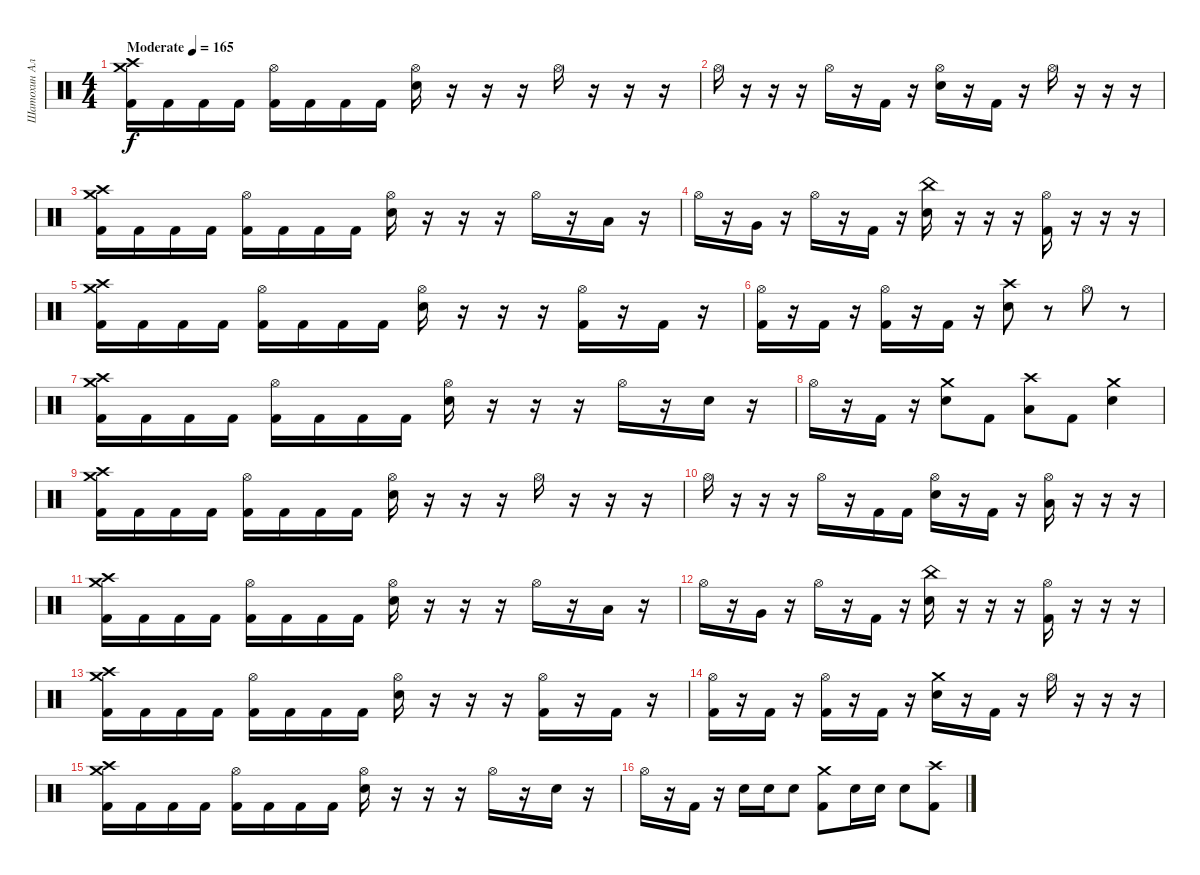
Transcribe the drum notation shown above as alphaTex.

\track ("Шатохин Алексей" "Шатохин Ал") {instrument percussion}
\staff {score}
\articulation defaults
\ts (4 4)
\tempo (165 "Moderate")
\clef neutral
\ks c
("Crash medium (hit)" "Crash high (hit)" "Kick (hit) 2").16{dy f} "Kick (hit) 2".16 "Kick (hit) 2".16 "Kick (hit) 2".16 ("Hi-Hat (open)" "Kick (hit) 2").16 "Kick (hit) 2".16 "Kick (hit) 2".16 "Kick (hit) 2".16 ("Hi-Hat (open)" "Electric Snare (hit)").16 r.16 r.16 r.16 "Hi-Hat (open)".16 r.16 r.16 r.16 |
"Hi-Hat (open)".16 r.16 r.16 r.16 "Hi-Hat (open)".16 r.16 "Kick (hit) 2".16 r.16 ("Hi-Hat (open)" "Electric Snare (hit)").16 r.16 "Kick (hit) 2".16 r.16 "Hi-Hat (open)".16 r.16 r.16 r.16 |
("Crash high (hit)" "Crash medium (hit)" "Kick (hit) 2").16 "Kick (hit) 2".16 "Kick (hit) 2".16 "Kick (hit) 2".16 ("Hi-Hat (open)" "Kick (hit) 2").16 "Kick (hit) 2".16 "Kick (hit) 2".16 "Kick (hit) 2".16 ("Hi-Hat (open)" "Electric Snare (hit)").16 r.16 r.16 r.16 "Hi-Hat (open)".16 r.16 "Low Tom (hit)".16 r.16 |
"Hi-Hat (open)".16 r.16 "Very Low Tom (hit)".16 r.16 "Hi-Hat (open)".16 r.16 "Kick (hit) 2".16 r.16 ("China (hit)" "Electric Snare (hit)").16 r.16 r.16 r.16 ("Hi-Hat (open)" "Kick (hit) 2").16 r.16 r.16 r.16 |
("Crash medium (hit)" "Crash high (hit)" "Kick (hit) 2").16 "Kick (hit) 2".16 "Kick (hit) 2".16 "Kick (hit) 2".16 ("Hi-Hat (open)" "Kick (hit) 2").16 "Kick (hit) 2".16 "Kick (hit) 2".16 "Kick (hit) 2".16 ("Hi-Hat (open)" "Electric Snare (hit)").16 r.16 r.16 r.16 ("Hi-Hat (open)" "Kick (hit) 2").16 r.16 "Kick (hit) 2".16 r.16 |
("Hi-Hat (open)" "Kick (hit) 2").16 r.16 "Kick (hit) 2".16 r.16 ("Hi-Hat (open)" "Kick (hit) 2").16 r.16 "Kick (hit) 2".16 r.16 ("Crash high (hit)" "Electric Snare (hit)").8 r.8 "Hi-Hat (open)".8 r.8 |
("Crash medium (hit)" "Crash high (hit)" "Kick (hit) 2").16 "Kick (hit) 2".16 "Kick (hit) 2".16 "Kick (hit) 2".16 ("Hi-Hat (open)" "Kick (hit) 2").16 "Kick (hit) 2".16 "Kick (hit) 2".16 "Kick (hit) 2".16 ("Hi-Hat (open)" "Electric Snare (hit)").16 r.16 r.16 r.16 "Hi-Hat (open)".16 r.16 "Electric Snare (hit)".16 r.16 |
"Hi-Hat (open)".16 r.16 "Kick (hit) 2".16 r.16 ("Crash medium (hit)" "Electric Snare (hit)").8 "Kick (hit) 2".8 ("Crash high (hit)" "Low Tom (hit)").8 "Kick (hit) 2".8 ("Crash medium (hit)" "Electric Snare (hit)").4 |
("Crash medium (hit)" "Crash high (hit)" "Kick (hit) 2").16 "Kick (hit) 2".16 "Kick (hit) 2".16 "Kick (hit) 2".16 ("Hi-Hat (open)" "Kick (hit) 2").16 "Kick (hit) 2".16 "Kick (hit) 2".16 "Kick (hit) 2".16 ("Hi-Hat (open)" "Electric Snare (hit)").16 r.16 r.16 r.16 "Hi-Hat (open)".16 r.16 r.16 r.16 |
"Hi-Hat (open)".16 r.16 r.16 r.16 "Hi-Hat (open)".16 r.16 "Kick (hit) 2".16 "Kick (hit) 2".16 ("Hi-Hat (open)" "Electric Snare (hit)").16 r.16 "Kick (hit) 2".16 r.16 ("Hi-Hat (open)" "Low Tom (hit)").16 r.16 r.16 r.16 |
("Crash high (hit)" "Crash medium (hit)" "Kick (hit) 2").16 "Kick (hit) 2".16 "Kick (hit) 2".16 "Kick (hit) 2".16 ("Hi-Hat (open)" "Kick (hit) 2").16 "Kick (hit) 2".16 "Kick (hit) 2".16 "Kick (hit) 2".16 ("Hi-Hat (open)" "Electric Snare (hit)").16 r.16 r.16 r.16 "Hi-Hat (open)".16 r.16 "Low Tom (hit)".16 r.16 |
"Hi-Hat (open)".16 r.16 "Very Low Tom (hit)".16 r.16 "Hi-Hat (open)".16 r.16 "Kick (hit) 2".16 r.16 ("China (hit)" "Electric Snare (hit)").16 r.16 r.16 r.16 ("Hi-Hat (open)" "Kick (hit) 2").16 r.16 r.16 r.16 |
("Crash medium (hit)" "Crash high (hit)" "Kick (hit) 2").16 "Kick (hit) 2".16 "Kick (hit) 2".16 "Kick (hit) 2".16 ("Hi-Hat (open)" "Kick (hit) 2").16 "Kick (hit) 2".16 "Kick (hit) 2".16 "Kick (hit) 2".16 ("Hi-Hat (open)" "Electric Snare (hit)").16 r.16 r.16 r.16 ("Hi-Hat (open)" "Kick (hit) 2").16 r.16 "Kick (hit) 2".16 r.16 |
("Hi-Hat (open)" "Kick (hit) 2").16 r.16 "Kick (hit) 2".16 r.16 ("Hi-Hat (open)" "Kick (hit) 2").16 r.16 "Kick (hit) 2".16 r.16 ("Crash medium (hit)" "Electric Snare (hit)").16 r.16 "Kick (hit) 2".16 r.16 "Hi-Hat (open)".16 r.16 r.16 r.16 |
("Crash medium (hit)" "Crash high (hit)" "Kick (hit) 2").16 "Kick (hit) 2".16 "Kick (hit) 2".16 "Kick (hit) 2".16 ("Hi-Hat (open)" "Kick (hit) 2").16 "Kick (hit) 2".16 "Kick (hit) 2".16 "Kick (hit) 2".16 ("Hi-Hat (open)" "Electric Snare (hit)").16 r.16 r.16 r.16 "Hi-Hat (open)".16 r.16 "Electric Snare (hit)".16 r.16 |
"Hi-Hat (open)".16 r.16 "Kick (hit) 2".16 r.16 "Electric Snare (hit)".16 "Electric Snare (hit)".16 "Electric Snare (hit)".8 ("Crash medium (hit)" "Kick (hit) 2").8 "Electric Snare (hit)".16 "Electric Snare (hit)".16 "Electric Snare (hit)".8 ("Crash high (hit)" "Kick (hit) 2").8
